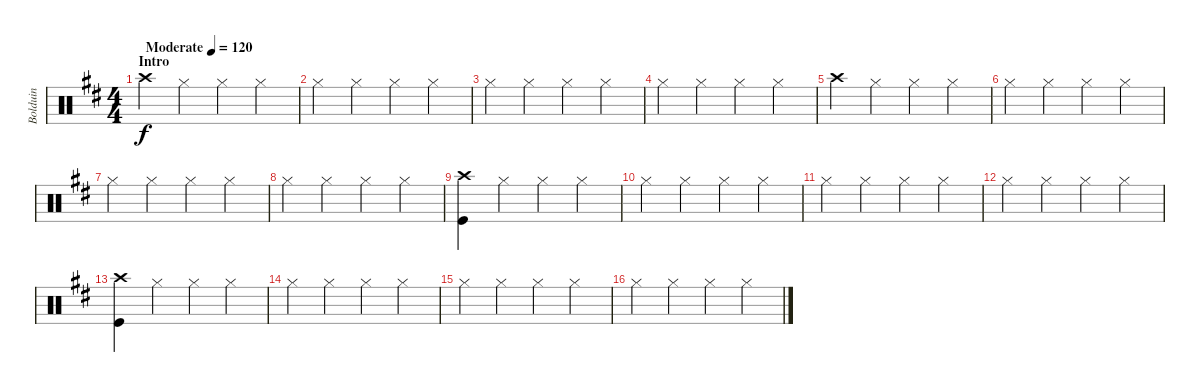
\track ("Bolduin" "Bolduin") {instrument percussion}
\staff {score}
\articulation defaults
\ts (4 4)
\section ("" "Intro")
\tempo (120 "Moderate")
\tempo 110
\tempo (120 "Moderate")
\clef neutral
\ks bminor "Crash high (hit)".4{dy f} "Hi-Hat (closed)".4 "Hi-Hat (closed)".4 "Hi-Hat (closed)".4
|
"Hi-Hat (closed)".4 "Hi-Hat (closed)".4 "Hi-Hat (closed)".4 "Hi-Hat (closed)".4 |
"Hi-Hat (closed)".4 "Hi-Hat (closed)".4 "Hi-Hat (closed)".4 "Hi-Hat (closed)".4 |
"Hi-Hat (closed)".4 "Hi-Hat (closed)".4 "Hi-Hat (closed)".4 "Hi-Hat (closed)".4 |
"Crash high (hit)".4 "Hi-Hat (closed)".4 "Hi-Hat (closed)".4 "Hi-Hat (closed)".4 |
"Hi-Hat (closed)".4 "Hi-Hat (closed)".4 "Hi-Hat (closed)".4 "Hi-Hat (closed)".4 |
"Hi-Hat (closed)".4 "Hi-Hat (closed)".4 "Hi-Hat (closed)".4 "Hi-Hat (closed)".4 |
"Hi-Hat (closed)".4 "Hi-Hat (closed)".4 "Hi-Hat (closed)".4 "Hi-Hat (closed)".4 |
("Crash high (hit)" "Kick (hit)").4 "Hi-Hat (closed)".4 "Hi-Hat (closed)".4 "Hi-Hat (closed)".4 |
"Hi-Hat (closed)".4 "Hi-Hat (closed)".4 "Hi-Hat (closed)".4 "Hi-Hat (closed)".4 |
"Hi-Hat (closed)".4 "Hi-Hat (closed)".4 "Hi-Hat (closed)".4 "Hi-Hat (closed)".4 |
"Hi-Hat (closed)".4 "Hi-Hat (closed)".4 "Hi-Hat (closed)".4 "Hi-Hat (closed)".4 |
("Crash high (hit)" "Kick (hit)").4 "Hi-Hat (closed)".4 "Hi-Hat (closed)".4 "Hi-Hat (closed)".4 |
"Hi-Hat (closed)".4 "Hi-Hat (closed)".4 "Hi-Hat (closed)".4 "Hi-Hat (closed)".4 |
"Hi-Hat (closed)".4 "Hi-Hat (closed)".4 "Hi-Hat (closed)".4 "Hi-Hat (closed)".4 |
"Hi-Hat (closed)".4 "Hi-Hat (closed)".4 "Hi-Hat (closed)".4 "Hi-Hat (closed)".4
